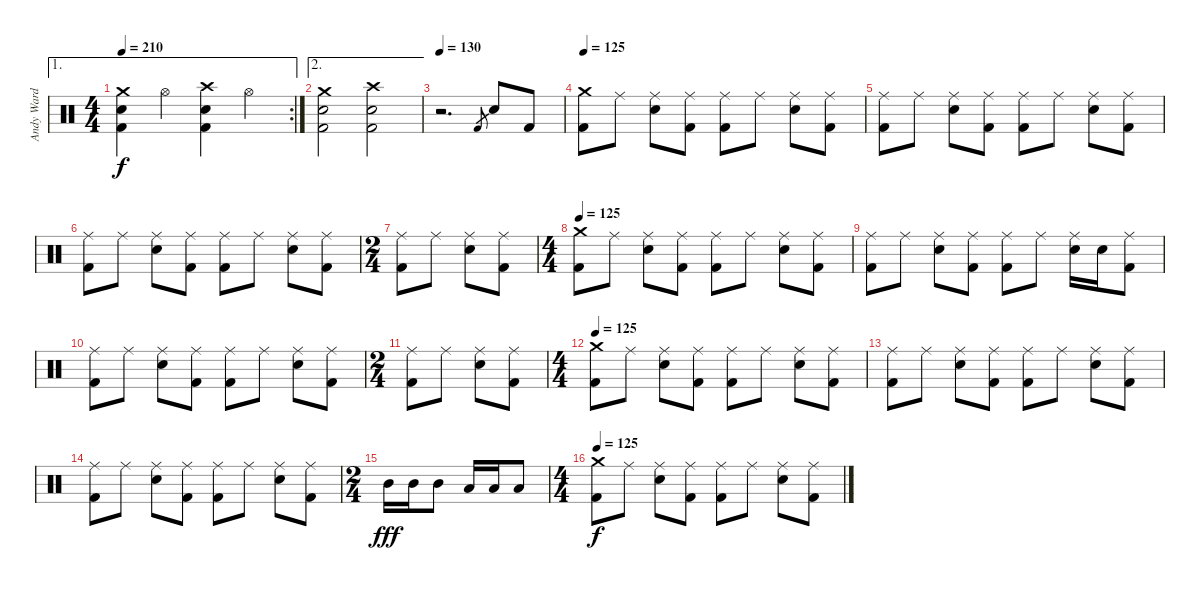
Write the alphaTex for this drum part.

\track ("Andy Ward" "Andy Ward") {instrument percussion}
\staff {score}
\articulation defaults
\ae 1
\rc 2
\ts (4 4)
\tempo 210
\clef neutral
\ks c
("Crash medium (hit)" "Electric Snare (hit)" "Kick (hit) 2").4{dy f} "Hi-Hat (open)".4 ("Crash high (hit)" "Electric Snare (hit)" "Kick (hit) 2").4 "Hi-Hat (open)".4 |
\ae 2
("Crash medium (hit)" "Electric Snare (hit)" "Kick (hit) 2").2 ("Crash high (hit)" "Electric Snare (hit)" "Kick (hit) 2").2 |
\tempo 130
r.2{d} "Kick (hit) 2".8{gr} "Snare (hit) 2".8 "Kick (hit) 2".8 |
\tempo 125
("Crash medium (hit)" "Kick (hit) 2").8 "Ride (middle)".8 ("Ride (middle)" "Snare (hit) 2").8 ("Ride (middle)" "Kick (hit) 2").8 ("Ride (middle)" "Kick (hit) 2").8 "Ride (middle)".8 ("Ride (middle)" "Snare (hit) 2").8 ("Ride (middle)" "Kick (hit) 2").8 |
("Ride (middle)" "Kick (hit) 2").8 "Ride (middle)".8 ("Ride (middle)" "Snare (hit) 2").8 ("Ride (middle)" "Kick (hit) 2").8 ("Ride (middle)" "Kick (hit) 2").8 "Ride (middle)".8 ("Ride (middle)" "Snare (hit) 2").8 ("Ride (middle)" "Kick (hit) 2").8 |
("Ride (middle)" "Kick (hit) 2").8 "Ride (middle)".8 ("Ride (middle)" "Snare (hit) 2").8 ("Ride (middle)" "Kick (hit) 2").8 ("Ride (middle)" "Kick (hit) 2").8 "Ride (middle)".8 ("Ride (middle)" "Snare (hit) 2").8 ("Ride (middle)" "Kick (hit) 2").8 |
\ts (2 4)
("Ride (middle)" "Kick (hit) 2").8 "Ride (middle)".8 ("Ride (middle)" "Snare (hit) 2").8 ("Ride (middle)" "Kick (hit) 2").8 |
\ts (4 4)
\tempo 125
("Crash medium (hit)" "Kick (hit) 2").8 "Ride (middle)".8 ("Ride (middle)" "Snare (hit) 2").8 ("Ride (middle)" "Kick (hit) 2").8 ("Ride (middle)" "Kick (hit) 2").8 "Ride (middle)".8 ("Ride (middle)" "Snare (hit) 2").8 ("Ride (middle)" "Kick (hit) 2").8 |
("Ride (middle)" "Kick (hit) 2").8 "Ride (middle)".8 ("Ride (middle)" "Snare (hit) 2").8 ("Ride (middle)" "Kick (hit) 2").8 ("Ride (middle)" "Kick (hit) 2").8 "Ride (middle)".8 ("Ride (middle)" "Snare (hit) 2").16 "Snare (hit) 2".16 ("Ride (middle)" "Kick (hit) 2").8 |
("Ride (middle)" "Kick (hit) 2").8 "Ride (middle)".8 ("Ride (middle)" "Snare (hit) 2").8 ("Ride (middle)" "Kick (hit) 2").8 ("Ride (middle)" "Kick (hit) 2").8 "Ride (middle)".8 ("Ride (middle)" "Snare (hit) 2").8 ("Ride (middle)" "Kick (hit) 2").8 |
\ts (2 4)
("Ride (middle)" "Kick (hit) 2").8 "Ride (middle)".8 ("Ride (middle)" "Snare (hit) 2").8 ("Ride (middle)" "Kick (hit) 2").8 |
\ts (4 4)
\tempo 125
("Crash medium (hit)" "Kick (hit) 2").8 "Ride (middle)".8 ("Ride (middle)" "Snare (hit) 2").8 ("Ride (middle)" "Kick (hit) 2").8 ("Ride (middle)" "Kick (hit) 2").8 "Ride (middle)".8 ("Ride (middle)" "Snare (hit) 2").8 ("Ride (middle)" "Kick (hit) 2").8 |
("Ride (middle)" "Kick (hit) 2").8 "Ride (middle)".8 ("Ride (middle)" "Snare (hit) 2").8 ("Ride (middle)" "Kick (hit) 2").8 ("Ride (middle)" "Kick (hit) 2").8 "Ride (middle)".8 ("Ride (middle)" "Snare (hit) 2").8 ("Ride (middle)" "Kick (hit) 2").8 |
("Ride (middle)" "Kick (hit) 2").8 "Ride (middle)".8 ("Ride (middle)" "Snare (hit) 2").8 ("Ride (middle)" "Kick (hit) 2").8 ("Ride (middle)" "Kick (hit) 2").8 "Ride (middle)".8 ("Ride (middle)" "Snare (hit) 2").8 ("Ride (middle)" "Kick (hit) 2").8 |
\ts (2 4)
"Mid Tom (hit)".16{dy fff} "Mid Tom (hit)".16 "Mid Tom (hit)".8 "Low Tom (hit)".16 "Low Tom (hit)".16 "Low Tom (hit)".8 |
\ts (4 4)
\tempo 125
("Crash medium (hit)" "Kick (hit) 2").8{dy f} "Ride (middle)".8 ("Ride (middle)" "Snare (hit) 2").8 ("Ride (middle)" "Kick (hit) 2").8 ("Ride (middle)" "Kick (hit) 2").8 "Ride (middle)".8 ("Ride (middle)" "Snare (hit) 2").8 ("Ride (middle)" "Kick (hit) 2").8
